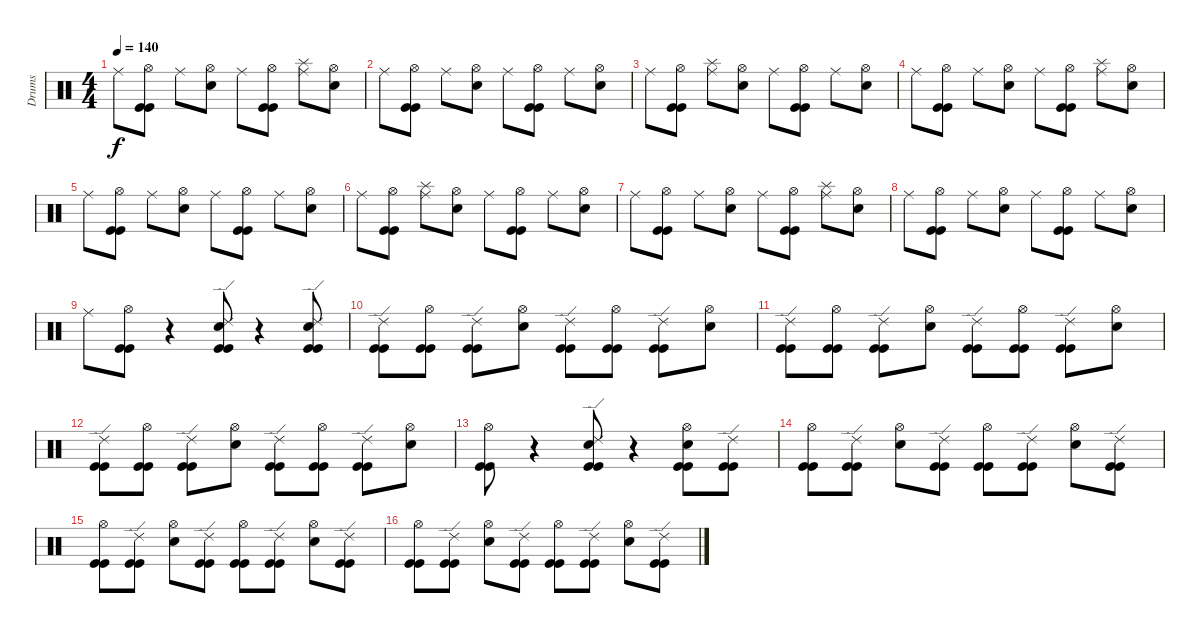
\track ("Drums" "Drums") {instrument percussion}
\staff {score}
\articulation defaults
\ts (4 4)
\tempo 140
\clef neutral
\ks c "Ride (middle)".8{dy f}
("Hi-Hat (open)" "Kick (hit)" "Kick (hit)").8 "Ride (middle)".8 ("Hi-Hat (open)" "Electric Snare (hit)").8 "Ride (middle)".8 ("Hi-Hat (open)" "Kick (hit)" "Kick (hit)").8 ("Ride (middle)" "Splash (hit)").8 ("Hi-Hat (open)" "Electric Snare (hit)").8 |
"Ride (middle)".8 ("Hi-Hat (open)" "Kick (hit)" "Kick (hit)").8 "Ride (middle)".8 ("Hi-Hat (open)" "Electric Snare (hit)").8 "Ride (middle)".8 ("Hi-Hat (open)" "Kick (hit)" "Kick (hit)").8 "Ride (middle)".8 ("Hi-Hat (open)" "Electric Snare (hit)").8 |
"Ride (middle)".8 ("Hi-Hat (open)" "Kick (hit)" "Kick (hit)").8 ("Ride (middle)" "Splash (hit)").8 ("Hi-Hat (open)" "Electric Snare (hit)").8 "Ride (middle)".8 ("Hi-Hat (open)" "Kick (hit)" "Kick (hit)").8 "Ride (middle)".8 ("Hi-Hat (open)" "Electric Snare (hit)").8 |
"Ride (middle)".8 ("Hi-Hat (open)" "Kick (hit)" "Kick (hit)").8 "Ride (middle)".8 ("Hi-Hat (open)" "Electric Snare (hit)").8 "Ride (middle)".8 ("Hi-Hat (open)" "Kick (hit)" "Kick (hit)").8 ("Ride (middle)" "Splash (hit)").8 ("Hi-Hat (open)" "Electric Snare (hit)").8 |
"Ride (middle)".8 ("Hi-Hat (open)" "Kick (hit)" "Kick (hit)").8 "Ride (middle)".8 ("Hi-Hat (open)" "Electric Snare (hit)").8 "Ride (middle)".8 ("Hi-Hat (open)" "Kick (hit)" "Kick (hit)").8 "Ride (middle)".8 ("Hi-Hat (open)" "Electric Snare (hit)").8 |
"Ride (middle)".8 ("Hi-Hat (open)" "Kick (hit)" "Kick (hit)").8 ("Ride (middle)" "Splash (hit)").8 ("Hi-Hat (open)" "Electric Snare (hit)").8 "Ride (middle)".8 ("Hi-Hat (open)" "Kick (hit)" "Kick (hit)").8 "Ride (middle)".8 ("Hi-Hat (open)" "Electric Snare (hit)").8 |
"Ride (middle)".8 ("Hi-Hat (open)" "Kick (hit)" "Kick (hit)").8 "Ride (middle)".8 ("Hi-Hat (open)" "Electric Snare (hit)").8 "Ride (middle)".8 ("Hi-Hat (open)" "Kick (hit)" "Kick (hit)").8 ("Ride (middle)" "Splash (hit)").8 ("Hi-Hat (open)" "Electric Snare (hit)").8 |
"Ride (middle)".8 ("Hi-Hat (open)" "Kick (hit)" "Kick (hit)").8 "Ride (middle)".8 ("Hi-Hat (open)" "Electric Snare (hit)").8 "Ride (middle)".8 ("Hi-Hat (open)" "Kick (hit)" "Kick (hit)").8 "Ride (middle)".8 ("Hi-Hat (open)" "Electric Snare (hit)").8 |
"Ride (middle)".8 ("Hi-Hat (open)" "Kick (hit)" "Kick (hit)").8 r.4 ("Ride (edge) 2" "Electric Snare (hit)" "Kick (hit)" "Kick (hit)").8 r.4 ("Ride (edge) 2" "Electric Snare (hit)" "Kick (hit)" "Kick (hit)").8 |
("Ride (edge) 2" "Kick (hit)" "Kick (hit)").8 ("Hi-Hat (open)" "Kick (hit)" "Kick (hit)").8 ("Ride (edge) 2" "Kick (hit)" "Kick (hit)").8 ("Hi-Hat (open)" "Electric Snare (hit)").8 ("Ride (edge) 2" "Kick (hit)" "Kick (hit)").8 ("Hi-Hat (open)" "Kick (hit)" "Kick (hit)").8 ("Ride (edge) 2" "Kick (hit)" "Kick (hit)").8 ("Hi-Hat (open)" "Electric Snare (hit)").8 |
("Ride (edge) 2" "Kick (hit)" "Kick (hit)").8 ("Hi-Hat (open)" "Kick (hit)" "Kick (hit)").8 ("Ride (edge) 2" "Kick (hit)" "Kick (hit)").8 ("Hi-Hat (open)" "Electric Snare (hit)").8 ("Ride (edge) 2" "Kick (hit)" "Kick (hit)").8 ("Hi-Hat (open)" "Kick (hit)" "Kick (hit)").8 ("Ride (edge) 2" "Kick (hit)" "Kick (hit)").8 ("Hi-Hat (open)" "Electric Snare (hit)").8 |
("Ride (edge) 2" "Kick (hit)" "Kick (hit)").8 ("Hi-Hat (open)" "Kick (hit)" "Kick (hit)").8 ("Ride (edge) 2" "Kick (hit)" "Kick (hit)").8 ("Hi-Hat (open)" "Electric Snare (hit)").8 ("Ride (edge) 2" "Kick (hit)" "Kick (hit)").8 ("Hi-Hat (open)" "Kick (hit)" "Kick (hit)").8 ("Ride (edge) 2" "Kick (hit)" "Kick (hit)").8 ("Hi-Hat (open)" "Electric Snare (hit)").8 |
("Hi-Hat (open)" "Kick (hit)" "Kick (hit)").8 r.4 ("Ride (edge) 2" "Electric Snare (hit)" "Kick (hit)" "Kick (hit)").8 r.4 ("Hi-Hat (open)" "Electric Snare (hit)" "Kick (hit)" "Kick (hit)").8 ("Ride (edge) 2" "Kick (hit)" "Kick (hit)").8 |
("Hi-Hat (open)" "Kick (hit)" "Kick (hit)").8 ("Ride (edge) 2" "Kick (hit)" "Kick (hit)").8 ("Hi-Hat (open)" "Electric Snare (hit)").8 ("Ride (edge) 2" "Kick (hit)" "Kick (hit)").8 ("Hi-Hat (open)" "Kick (hit)" "Kick (hit)").8 ("Ride (edge) 2" "Kick (hit)" "Kick (hit)").8 ("Hi-Hat (open)" "Electric Snare (hit)").8 ("Ride (edge) 2" "Kick (hit)" "Kick (hit)").8 |
("Hi-Hat (open)" "Kick (hit)" "Kick (hit)").8 ("Ride (edge) 2" "Kick (hit)" "Kick (hit)").8 ("Hi-Hat (open)" "Electric Snare (hit)").8 ("Ride (edge) 2" "Kick (hit)" "Kick (hit)").8 ("Hi-Hat (open)" "Kick (hit)" "Kick (hit)").8 ("Ride (edge) 2" "Kick (hit)" "Kick (hit)").8 ("Hi-Hat (open)" "Electric Snare (hit)").8 ("Ride (edge) 2" "Kick (hit)" "Kick (hit)").8 |
("Hi-Hat (open)" "Kick (hit)" "Kick (hit)").8 ("Ride (edge) 2" "Kick (hit)" "Kick (hit)").8 ("Hi-Hat (open)" "Electric Snare (hit)").8 ("Ride (edge) 2" "Kick (hit)" "Kick (hit)").8 ("Hi-Hat (open)" "Kick (hit)" "Kick (hit)").8 ("Ride (edge) 2" "Kick (hit)" "Kick (hit)").8 ("Hi-Hat (open)" "Electric Snare (hit)").8 ("Ride (edge) 2" "Kick (hit)" "Kick (hit)").8
